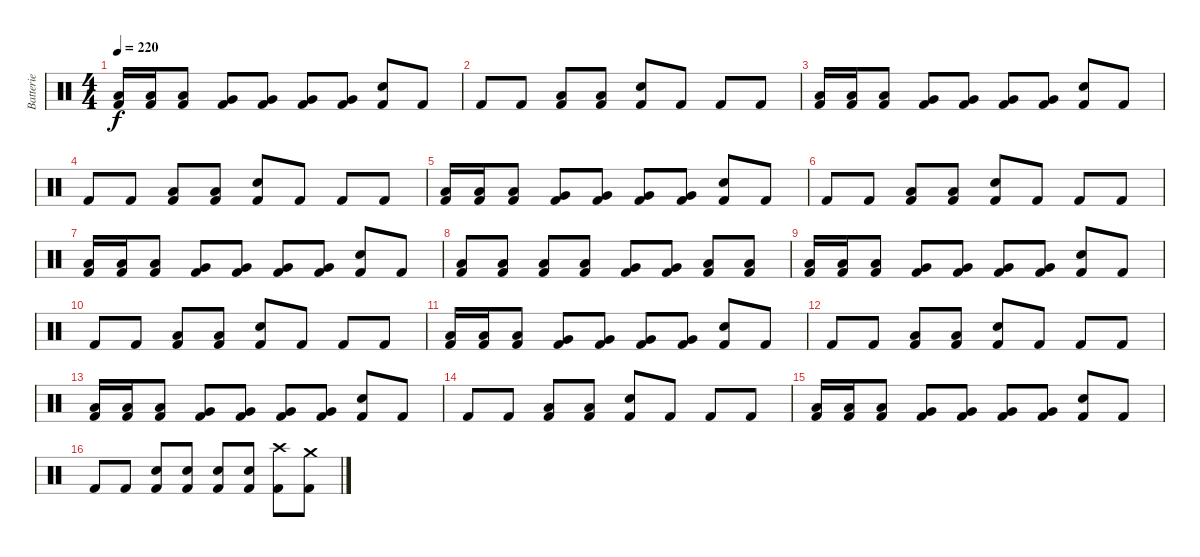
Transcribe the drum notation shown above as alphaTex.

\track ("Batterie" "Batterie") {instrument percussion}
\staff {score}
\articulation defaults
\ts (4 4)
\tempo 220
\clef neutral
\ks c
("Low Tom (hit)" "Kick (hit) 2").16{dy f} ("Low Tom (hit)" "Kick (hit) 2").16 ("Low Tom (hit)" "Kick (hit) 2").8 ("Very Low Tom (hit)" "Kick (hit) 2").8 ("Very Low Tom (hit)" "Kick (hit) 2").8 ("Very Low Tom (hit)" "Kick (hit) 2").8 ("Very Low Tom (hit)" "Kick (hit) 2").8 ("Electric Snare (hit)" "Kick (hit) 2").8 "Kick (hit) 2".8 |
"Kick (hit) 2".8 "Kick (hit) 2".8 ("Low Tom (hit)" "Kick (hit) 2").8 ("Low Tom (hit)" "Kick (hit) 2").8 ("Electric Snare (hit)" "Kick (hit) 2").8 "Kick (hit) 2".8 "Kick (hit) 2".8 "Kick (hit) 2".8 |
("Low Tom (hit)" "Kick (hit) 2").16 ("Low Tom (hit)" "Kick (hit) 2").16 ("Low Tom (hit)" "Kick (hit) 2").8 ("Very Low Tom (hit)" "Kick (hit) 2").8 ("Very Low Tom (hit)" "Kick (hit) 2").8 ("Very Low Tom (hit)" "Kick (hit) 2").8 ("Very Low Tom (hit)" "Kick (hit) 2").8 ("Electric Snare (hit)" "Kick (hit) 2").8 "Kick (hit) 2".8 |
"Kick (hit) 2".8 "Kick (hit) 2".8 ("Low Tom (hit)" "Kick (hit) 2").8 ("Low Tom (hit)" "Kick (hit) 2").8 ("Electric Snare (hit)" "Kick (hit) 2").8 "Kick (hit) 2".8 "Kick (hit) 2".8 "Kick (hit) 2".8 |
("Low Tom (hit)" "Kick (hit) 2").16 ("Low Tom (hit)" "Kick (hit) 2").16 ("Low Tom (hit)" "Kick (hit) 2").8 ("Very Low Tom (hit)" "Kick (hit) 2").8 ("Very Low Tom (hit)" "Kick (hit) 2").8 ("Very Low Tom (hit)" "Kick (hit) 2").8 ("Very Low Tom (hit)" "Kick (hit) 2").8 ("Electric Snare (hit)" "Kick (hit) 2").8 "Kick (hit) 2".8 |
"Kick (hit) 2".8 "Kick (hit) 2".8 ("Low Tom (hit)" "Kick (hit) 2").8 ("Low Tom (hit)" "Kick (hit) 2").8 ("Electric Snare (hit)" "Kick (hit) 2").8 "Kick (hit) 2".8 "Kick (hit) 2".8 "Kick (hit) 2".8 |
("Low Tom (hit)" "Kick (hit) 2").16 ("Low Tom (hit)" "Kick (hit) 2").16 ("Low Tom (hit)" "Kick (hit) 2").8 ("Very Low Tom (hit)" "Kick (hit) 2").8 ("Very Low Tom (hit)" "Kick (hit) 2").8 ("Very Low Tom (hit)" "Kick (hit) 2").8 ("Very Low Tom (hit)" "Kick (hit) 2").8 ("Electric Snare (hit)" "Kick (hit) 2").8 "Kick (hit) 2".8 |
("Low Tom (hit)" "Kick (hit) 2").8 ("Low Tom (hit)" "Kick (hit) 2").8 ("Low Tom (hit)" "Kick (hit) 2").8 ("Low Tom (hit)" "Kick (hit) 2").8 ("Very Low Tom (hit)" "Kick (hit) 2").8 ("Very Low Tom (hit)" "Kick (hit) 2").8 ("Low Floor Tom (hit)" "Kick (hit) 2").8 ("Low Floor Tom (hit)" "Kick (hit) 2").8 |
("Low Tom (hit)" "Kick (hit) 2").16 ("Low Tom (hit)" "Kick (hit) 2").16 ("Low Tom (hit)" "Kick (hit) 2").8 ("Very Low Tom (hit)" "Kick (hit) 2").8 ("Very Low Tom (hit)" "Kick (hit) 2").8 ("Very Low Tom (hit)" "Kick (hit) 2").8 ("Very Low Tom (hit)" "Kick (hit) 2").8 ("Electric Snare (hit)" "Kick (hit) 2").8 "Kick (hit) 2".8 |
"Kick (hit) 2".8 "Kick (hit) 2".8 ("Low Tom (hit)" "Kick (hit) 2").8 ("Low Tom (hit)" "Kick (hit) 2").8 ("Electric Snare (hit)" "Kick (hit) 2").8 "Kick (hit) 2".8 "Kick (hit) 2".8 "Kick (hit) 2".8 |
("Low Tom (hit)" "Kick (hit) 2").16 ("Low Tom (hit)" "Kick (hit) 2").16 ("Low Tom (hit)" "Kick (hit) 2").8 ("Very Low Tom (hit)" "Kick (hit) 2").8 ("Very Low Tom (hit)" "Kick (hit) 2").8 ("Very Low Tom (hit)" "Kick (hit) 2").8 ("Very Low Tom (hit)" "Kick (hit) 2").8 ("Electric Snare (hit)" "Kick (hit) 2").8 "Kick (hit) 2".8 |
"Kick (hit) 2".8 "Kick (hit) 2".8 ("Low Tom (hit)" "Kick (hit) 2").8 ("Low Tom (hit)" "Kick (hit) 2").8 ("Electric Snare (hit)" "Kick (hit) 2").8 "Kick (hit) 2".8 "Kick (hit) 2".8 "Kick (hit) 2".8 |
("Low Tom (hit)" "Kick (hit) 2").16 ("Low Tom (hit)" "Kick (hit) 2").16 ("Low Tom (hit)" "Kick (hit) 2").8 ("Very Low Tom (hit)" "Kick (hit) 2").8 ("Very Low Tom (hit)" "Kick (hit) 2").8 ("Very Low Tom (hit)" "Kick (hit) 2").8 ("Very Low Tom (hit)" "Kick (hit) 2").8 ("Electric Snare (hit)" "Kick (hit) 2").8 "Kick (hit) 2".8 |
"Kick (hit) 2".8 "Kick (hit) 2".8 ("Low Tom (hit)" "Kick (hit) 2").8 ("Low Tom (hit)" "Kick (hit) 2").8 ("Electric Snare (hit)" "Kick (hit) 2").8 "Kick (hit) 2".8 "Kick (hit) 2".8 "Kick (hit) 2".8 |
("Low Tom (hit)" "Kick (hit) 2").16 ("Low Tom (hit)" "Kick (hit) 2").16 ("Low Tom (hit)" "Kick (hit) 2").8 ("Very Low Tom (hit)" "Kick (hit) 2").8 ("Very Low Tom (hit)" "Kick (hit) 2").8 ("Very Low Tom (hit)" "Kick (hit) 2").8 ("Very Low Tom (hit)" "Kick (hit) 2").8 ("Electric Snare (hit)" "Kick (hit) 2").8 "Kick (hit) 2".8 |
"Kick (hit) 2".8 "Kick (hit) 2".8 ("Electric Snare (hit)" "Kick (hit) 2").8 ("Electric Snare (hit)" "Kick (hit) 2").8 ("Electric Snare (hit)" "Kick (hit) 2").8 ("Electric Snare (hit)" "Kick (hit) 2").8 ("Crash high (hit)" "Kick (hit) 2").8 ("Crash medium (hit)" "Kick (hit) 2").8
